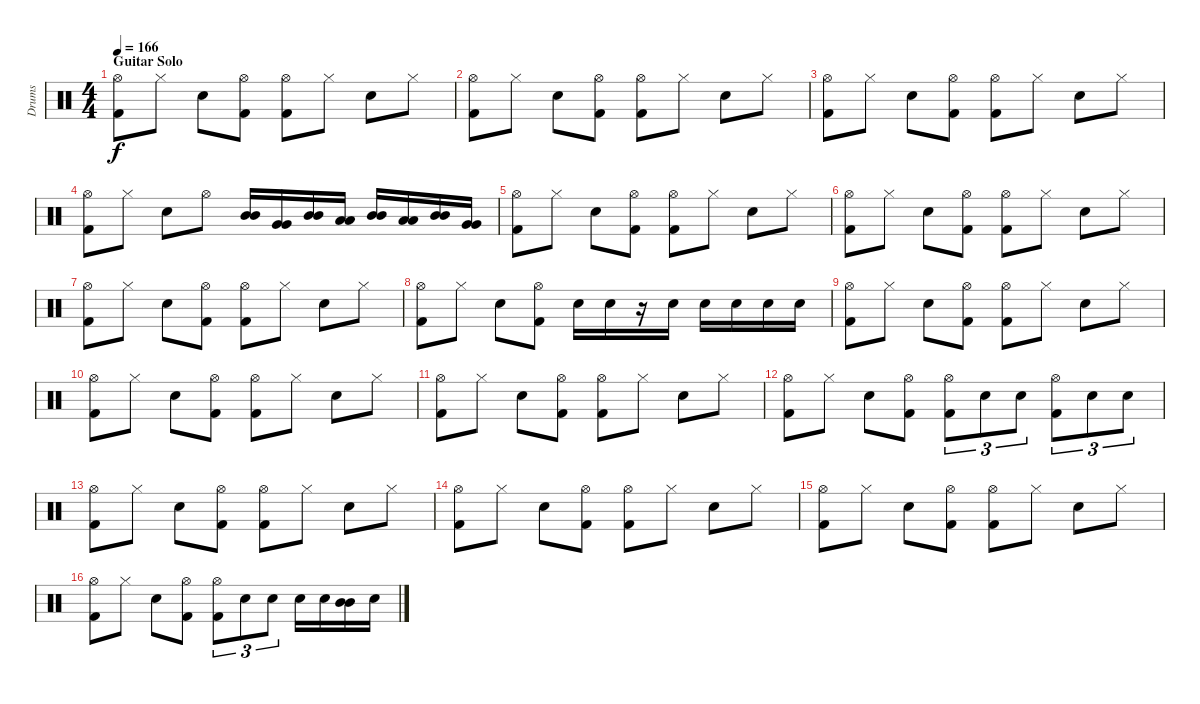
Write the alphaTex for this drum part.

\track ("Drums" "Drums") {instrument percussion}
\staff {score}
\articulation defaults
\ts (4 4)
\section ("" "Guitar Solo")
\tempo 166
\clef neutral
\ks c
("Hi-Hat (open)" "Kick (hit) 2").8{dy f} "Hi-Hat (closed)".8 "Electric Snare (hit)".8 ("Hi-Hat (open)" "Kick (hit) 2").8 ("Hi-Hat (open)" "Kick (hit) 2").8 "Hi-Hat (closed)".8 "Electric Snare (hit)".8 "Hi-Hat (closed)".8 |
("Hi-Hat (open)" "Kick (hit) 2").8 "Hi-Hat (closed)".8 "Electric Snare (hit)".8 ("Hi-Hat (open)" "Kick (hit) 2").8 ("Hi-Hat (open)" "Kick (hit) 2").8 "Hi-Hat (closed)".8 "Electric Snare (hit)".8 "Hi-Hat (closed)".8 |
("Hi-Hat (open)" "Kick (hit) 2").8 "Hi-Hat (closed)".8 "Electric Snare (hit)".8 ("Hi-Hat (open)" "Kick (hit) 2").8 ("Hi-Hat (open)" "Kick (hit) 2").8 "Hi-Hat (closed)".8 "Electric Snare (hit)".8 "Hi-Hat (closed)".8 |
("Hi-Hat (open)" "Kick (hit) 2").8 "Hi-Hat (closed)".8 "Electric Snare (hit)".8 "Hi-Hat (open)".8 ("Mid Tom (hit)" "Mid Tom (hit)").16 ("Very Low Tom (hit)" "Very Low Tom (hit)").16 ("Mid Tom (hit)" "Mid Tom (hit)").16 ("Low Tom (hit)" "Low Tom (hit)").16 ("Mid Tom (hit)" "Mid Tom (hit)").16 ("Low Floor Tom (hit)" "Low Floor Tom (hit)").16 ("Mid Tom (hit)" "Mid Tom (hit)").16 ("Very Low Tom (hit)" "Very Low Tom (hit)").16 |
("Hi-Hat (open)" "Kick (hit) 2").8 "Hi-Hat (closed)".8 "Electric Snare (hit)".8 ("Hi-Hat (open)" "Kick (hit) 2").8 ("Hi-Hat (open)" "Kick (hit) 2").8 "Hi-Hat (closed)".8 "Electric Snare (hit)".8 "Hi-Hat (closed)".8 |
("Hi-Hat (open)" "Kick (hit) 2").8 "Hi-Hat (closed)".8 "Electric Snare (hit)".8 ("Hi-Hat (open)" "Kick (hit) 2").8 ("Hi-Hat (open)" "Kick (hit) 2").8 "Hi-Hat (closed)".8 "Electric Snare (hit)".8 "Hi-Hat (closed)".8 |
("Hi-Hat (open)" "Kick (hit) 2").8 "Hi-Hat (closed)".8 "Electric Snare (hit)".8 ("Hi-Hat (open)" "Kick (hit) 2").8 ("Hi-Hat (open)" "Kick (hit) 2").8 "Hi-Hat (closed)".8 "Electric Snare (hit)".8 "Hi-Hat (closed)".8 |
("Hi-Hat (open)" "Kick (hit) 2").8 "Hi-Hat (closed)".8 "Electric Snare (hit)".8 ("Hi-Hat (open)" "Kick (hit) 2").8 "Snare (hit) 2".16 "Snare (hit) 2".16 r.16 "Snare (hit) 2".16 "Electric Snare (hit)".16 "Electric Snare (hit)".16 "Snare (hit) 2".16 "Electric Snare (hit)".16 |
("Hi-Hat (open)" "Kick (hit) 2").8 "Hi-Hat (closed)".8 "Electric Snare (hit)".8 ("Hi-Hat (open)" "Kick (hit) 2").8 ("Hi-Hat (open)" "Kick (hit) 2").8 "Hi-Hat (closed)".8 "Electric Snare (hit)".8 "Hi-Hat (closed)".8 |
("Hi-Hat (open)" "Kick (hit) 2").8 "Hi-Hat (closed)".8 "Electric Snare (hit)".8 ("Hi-Hat (open)" "Kick (hit) 2").8 ("Hi-Hat (open)" "Kick (hit) 2").8 "Hi-Hat (closed)".8 "Electric Snare (hit)".8 "Hi-Hat (closed)".8 |
("Hi-Hat (open)" "Kick (hit) 2").8 "Hi-Hat (closed)".8 "Electric Snare (hit)".8 ("Hi-Hat (open)" "Kick (hit) 2").8 ("Hi-Hat (open)" "Kick (hit) 2").8 "Hi-Hat (closed)".8 "Electric Snare (hit)".8 "Hi-Hat (closed)".8 |
("Hi-Hat (open)" "Kick (hit) 2").8 "Hi-Hat (closed)".8 "Electric Snare (hit)".8 ("Hi-Hat (open)" "Kick (hit) 2").8 ("Hi-Hat (open)" "Kick (hit) 2").8{tu (3 2)} "Electric Snare (hit)".8{tu (3 2)} "Snare (hit) 2".8{tu (3 2)} ("Hi-Hat (open)" "Kick (hit) 2").8{tu (3 2)} "Electric Snare (hit)".8{tu (3 2)} "Snare (hit) 2".8{tu (3 2)} |
("Hi-Hat (open)" "Kick (hit) 2").8 "Hi-Hat (closed)".8 "Electric Snare (hit)".8 ("Hi-Hat (open)" "Kick (hit) 2").8 ("Hi-Hat (open)" "Kick (hit) 2").8 "Hi-Hat (closed)".8 "Electric Snare (hit)".8 "Hi-Hat (closed)".8 |
("Hi-Hat (open)" "Kick (hit) 2").8 "Hi-Hat (closed)".8 "Electric Snare (hit)".8 ("Hi-Hat (open)" "Kick (hit) 2").8 ("Hi-Hat (open)" "Kick (hit) 2").8 "Hi-Hat (closed)".8 "Electric Snare (hit)".8 "Hi-Hat (closed)".8 |
("Hi-Hat (open)" "Kick (hit) 2").8 "Hi-Hat (closed)".8 "Electric Snare (hit)".8 ("Hi-Hat (open)" "Kick (hit) 2").8 ("Hi-Hat (open)" "Kick (hit) 2").8 "Hi-Hat (closed)".8 "Electric Snare (hit)".8 "Hi-Hat (closed)".8 |
("Hi-Hat (open)" "Kick (hit) 2").8 "Hi-Hat (closed)".8 "Electric Snare (hit)".8 ("Hi-Hat (open)" "Kick (hit) 2").8 ("Hi-Hat (open)" "Kick (hit) 2").8{tu (3 2)} "Electric Snare (hit)".8{tu (3 2)} "Snare (hit) 2".8{tu (3 2)} "Electric Snare (hit)".16 "Electric Snare (hit)".16 ("Mid Tom (hit)" "Mid Tom (hit)").16 "Electric Snare (hit)".16
